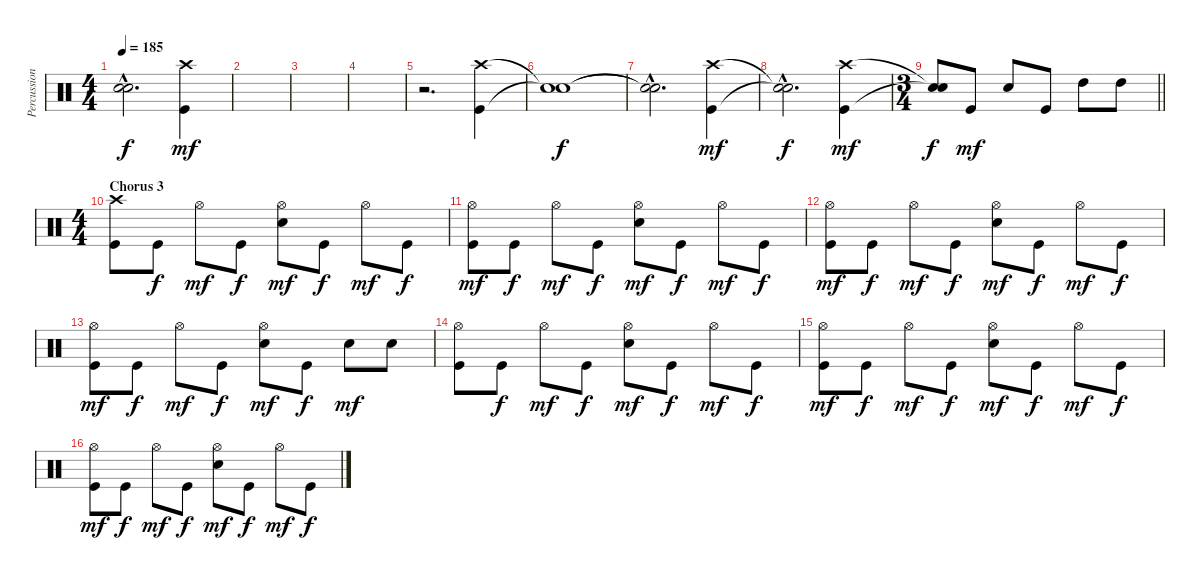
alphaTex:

\track ("Percussion" "Percussion") {instrument percussion}
\staff {score}
\articulation defaults
\ts (4 4)
\tempo 185
\clef neutral
\ks c
("Snare (hit)"{hac t} "Snare (hit)"{hac t}).2{d dy f} ("Kick (hit)" "Crash high (hit)").4{dy mf} |
|
|
|
r.2{d} ("Kick (hit)" "Crash high (hit)").4 |
("Snare (hit)"{t} "Snare (hit)"{t}).1{dy f} |
("Snare (hit)"{hac t} "Snare (hit)"{hac t}).2{d} ("Kick (hit)" "Crash high (hit)").4{dy mf} |
("Snare (hit)"{hac t} "Snare (hit)"{hac t}).2{d dy f} ("Crash high (hit)" "Kick (hit)").4{dy mf} |
\ts (3 4)
\barLineRight lightlight
("Snare (hit)"{t} "Snare (hit)"{t}).8{dy f} "Kick (hit)".8{dy mf} "Snare (hit) 2".8 "Kick (hit)".8 "High Tom (hit)".8 "High Tom (hit)".8 |
\ts (4 4)
\section ("" "Chorus 3")
("Crash high (hit)" "Kick (hit)").8 "Kick (hit)".8{dy f} "Hi-Hat (open)".8{dy mf} "Kick (hit)".8{dy f} ("Snare (hit) 2" "Hi-Hat (open)").8{dy mf} "Kick (hit)".8{dy f} "Hi-Hat (open)".8{dy mf} "Kick (hit)".8{dy f} |
("Kick (hit)" "Hi-Hat (open)").8{dy mf} "Kick (hit)".8{dy f} "Hi-Hat (open)".8{dy mf} "Kick (hit)".8{dy f} ("Snare (hit) 2" "Hi-Hat (open)").8{dy mf} "Kick (hit)".8{dy f} "Hi-Hat (open)".8{dy mf} "Kick (hit)".8{dy f} |
("Hi-Hat (open)" "Kick (hit)").8{dy mf} "Kick (hit)".8{dy f} "Hi-Hat (open)".8{dy mf} "Kick (hit)".8{dy f} ("Snare (hit) 2" "Hi-Hat (open)").8{dy mf} "Kick (hit)".8{dy f} "Hi-Hat (open)".8{dy mf} "Kick (hit)".8{dy f} |
("Hi-Hat (open)" "Kick (hit)").8{dy mf} "Kick (hit)".8{dy f} "Hi-Hat (open)".8{dy mf} "Kick (hit)".8{dy f} ("Snare (hit) 2" "Hi-Hat (open)").8{dy mf} "Kick (hit)".8{dy f} "Snare (hit) 2".8{dy mf} "Snare (hit) 2".8 |
("Hi-Hat (open)" "Kick (hit)").8 "Kick (hit)".8{dy f} "Hi-Hat (open)".8{dy mf} "Kick (hit)".8{dy f} ("Snare (hit) 2" "Hi-Hat (open)").8{dy mf} "Kick (hit)".8{dy f} "Hi-Hat (open)".8{dy mf} "Kick (hit)".8{dy f} |
("Hi-Hat (open)" "Kick (hit)").8{dy mf} "Kick (hit)".8{dy f} "Hi-Hat (open)".8{dy mf} "Kick (hit)".8{dy f} ("Snare (hit) 2" "Hi-Hat (open)").8{dy mf} "Kick (hit)".8{dy f} "Hi-Hat (open)".8{dy mf} "Kick (hit)".8{dy f} |
("Hi-Hat (open)" "Kick (hit)").8{dy mf} "Kick (hit)".8{dy f} "Hi-Hat (open)".8{dy mf} "Kick (hit)".8{dy f} ("Snare (hit) 2" "Hi-Hat (open)").8{dy mf} "Kick (hit)".8{dy f} "Hi-Hat (open)".8{dy mf} "Kick (hit)".8{dy f}
